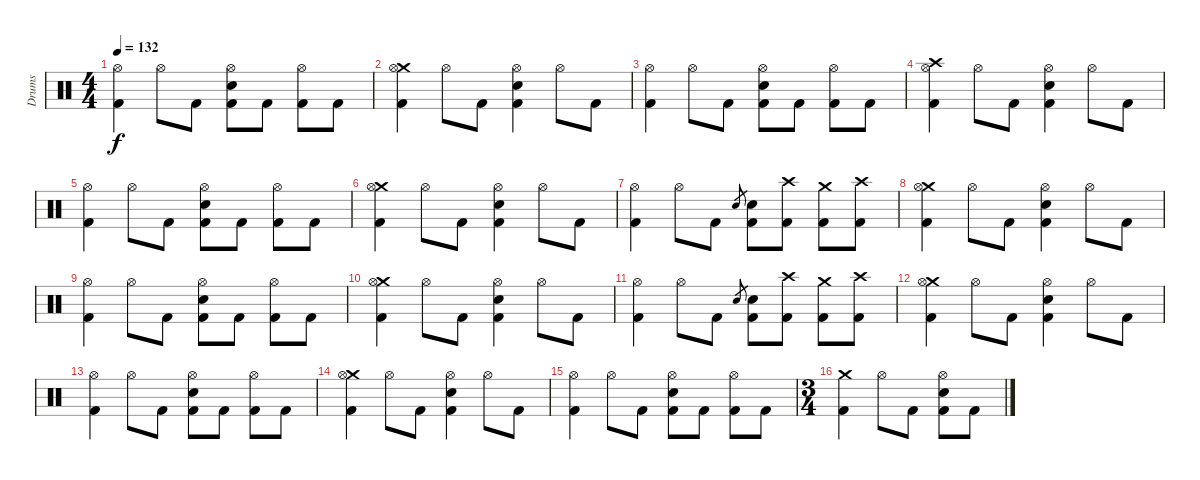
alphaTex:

\track ("Drums" "Drums") {instrument percussion}
\staff {score}
\articulation defaults
\ts (4 4)
\tempo 132
\clef neutral
\ks c
("Hi-Hat (open)" "Kick (hit) 2").4{dy f} "Hi-Hat (open)".8 "Kick (hit) 2".8 ("Hi-Hat (open)" "Electric Snare (hit)" "Kick (hit) 2").8 "Kick (hit) 2".8 ("Hi-Hat (open)" "Kick (hit) 2").8 "Kick (hit) 2".8 |
("Crash medium (hit)" "Hi-Hat (open)" "Kick (hit) 2").4 "Hi-Hat (open)".8 "Kick (hit) 2".8 ("Hi-Hat (open)" "Electric Snare (hit)" "Kick (hit) 2").4 "Hi-Hat (open)".8 "Kick (hit) 2".8 |
("Hi-Hat (open)" "Kick (hit) 2").4 "Hi-Hat (open)".8 "Kick (hit) 2".8 ("Hi-Hat (open)" "Electric Snare (hit)" "Kick (hit) 2").8 "Kick (hit) 2".8 ("Hi-Hat (open)" "Kick (hit) 2").8 "Kick (hit) 2".8 |
("Crash high (hit)" "Hi-Hat (open)" "Kick (hit) 2").4 "Hi-Hat (open)".8 "Kick (hit) 2".8 ("Hi-Hat (open)" "Electric Snare (hit)" "Kick (hit) 2").4 "Hi-Hat (open)".8 "Kick (hit) 2".8 |
("Hi-Hat (open)" "Kick (hit) 2").4 "Hi-Hat (open)".8 "Kick (hit) 2".8 ("Hi-Hat (open)" "Electric Snare (hit)" "Kick (hit) 2").8 "Kick (hit) 2".8 ("Hi-Hat (open)" "Kick (hit) 2").8 "Kick (hit) 2".8 |
("Crash medium (hit)" "Hi-Hat (open)" "Kick (hit) 2").4 "Hi-Hat (open)".8 "Kick (hit) 2".8 ("Hi-Hat (open)" "Electric Snare (hit)" "Kick (hit) 2").4 "Hi-Hat (open)".8 "Kick (hit) 2".8 |
("Hi-Hat (open)" "Kick (hit) 2").4 "Hi-Hat (open)".8 "Kick (hit) 2".8 "Electric Snare (hit)".8{gr} ("Electric Snare (hit)" "Kick (hit) 2").8 ("Crash high (hit)" "Kick (hit) 2").8 ("Crash medium (hit)" "Kick (hit) 2").8 ("Crash high (hit)" "Kick (hit) 2").8 |
("Crash medium (hit)" "Hi-Hat (open)" "Kick (hit) 2").4 "Hi-Hat (open)".8 "Kick (hit) 2".8 ("Hi-Hat (open)" "Electric Snare (hit)" "Kick (hit) 2").4 "Hi-Hat (open)".8 "Kick (hit) 2".8 |
("Hi-Hat (open)" "Kick (hit) 2").4 "Hi-Hat (open)".8 "Kick (hit) 2".8 ("Hi-Hat (open)" "Electric Snare (hit)" "Kick (hit) 2").8 "Kick (hit) 2".8 ("Hi-Hat (open)" "Kick (hit) 2").8 "Kick (hit) 2".8 |
("Crash medium (hit)" "Hi-Hat (open)" "Kick (hit) 2").4 "Hi-Hat (open)".8 "Kick (hit) 2".8 ("Hi-Hat (open)" "Electric Snare (hit)" "Kick (hit) 2").4 "Hi-Hat (open)".8 "Kick (hit) 2".8 |
("Hi-Hat (open)" "Kick (hit) 2").4 "Hi-Hat (open)".8 "Kick (hit) 2".8 "Electric Snare (hit)".8{gr} ("Electric Snare (hit)" "Kick (hit) 2").8 ("Crash high (hit)" "Kick (hit) 2").8 ("Crash medium (hit)" "Kick (hit) 2").8 ("Crash high (hit)" "Kick (hit) 2").8 |
("Crash medium (hit)" "Hi-Hat (open)" "Kick (hit) 2").4 "Hi-Hat (open)".8 "Kick (hit) 2".8 ("Hi-Hat (open)" "Electric Snare (hit)" "Kick (hit) 2").4 "Hi-Hat (open)".8 "Kick (hit) 2".8 |
("Hi-Hat (open)" "Kick (hit) 2").4 "Hi-Hat (open)".8 "Kick (hit) 2".8 ("Hi-Hat (open)" "Electric Snare (hit)" "Kick (hit) 2").8 "Kick (hit) 2".8 ("Hi-Hat (open)" "Kick (hit) 2").8 "Kick (hit) 2".8 |
("Crash medium (hit)" "Hi-Hat (open)" "Kick (hit) 2").4 "Hi-Hat (open)".8 "Kick (hit) 2".8 ("Hi-Hat (open)" "Electric Snare (hit)" "Kick (hit) 2").4 "Hi-Hat (open)".8 "Kick (hit) 2".8 |
("Hi-Hat (open)" "Kick (hit) 2").4 "Hi-Hat (open)".8 "Kick (hit) 2".8 ("Hi-Hat (open)" "Electric Snare (hit)" "Kick (hit) 2").8 "Kick (hit) 2".8 ("Hi-Hat (open)" "Kick (hit) 2").8 "Kick (hit) 2".8 |
\ts (3 4)
("Crash medium (hit)" "Kick (hit) 2").4 "Hi-Hat (open)".8 "Kick (hit) 2".8 ("Hi-Hat (open)" "Electric Snare (hit)" "Kick (hit) 2").8 "Kick (hit) 2".8
